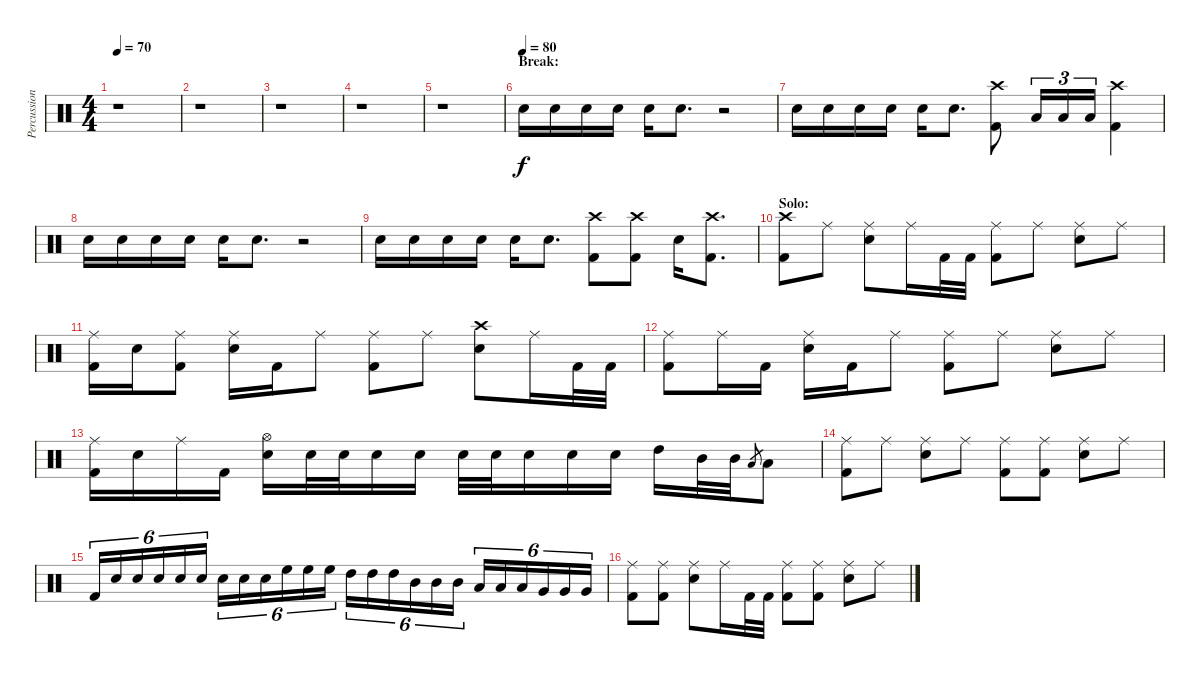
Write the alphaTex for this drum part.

\track ("Percussion" "Percussion") {instrument percussion}
\staff {score}
\articulation defaults
\ts (4 4)
\tempo 70
\clef neutral
\ks c
r.1{dy f} |
r.1 |
r.1 |
r.1 |
r.1 |
\section ("" "Break:")
\tempo (80)
"Electric Snare (hit)".16 "Electric Snare (hit)".16 "Electric Snare (hit)".16 "Electric Snare (hit)".16 "Electric Snare (hit)".16 "Electric Snare (hit)".8{d} r.2 |
"Electric Snare (hit)".16 "Electric Snare (hit)".16 "Electric Snare (hit)".16 "Electric Snare (hit)".16 "Electric Snare (hit)".16 "Electric Snare (hit)".8{d} ("Crash high (hit)" "Kick (hit) 2").8 "Low Tom (hit)".16{tu (3 2)} "Low Tom (hit)".16{tu (3 2)} "Low Tom (hit)".16{tu (3 2)} ("Crash high (hit)" "Kick (hit) 2").4 |
"Electric Snare (hit)".16 "Electric Snare (hit)".16 "Electric Snare (hit)".16 "Electric Snare (hit)".16 "Electric Snare (hit)".16 "Electric Snare (hit)".8{d} r.2 |
"Electric Snare (hit)".16 "Electric Snare (hit)".16 "Electric Snare (hit)".16 "Electric Snare (hit)".16 "Electric Snare (hit)".16 "Electric Snare (hit)".8{d} ("Crash high (hit)" "Kick (hit) 2").8 ("Crash high (hit)" "Kick (hit) 2").8 "Electric Snare (hit)".16 ("Crash high (hit)" "Kick (hit) 2").8{d} |
\section ("" "Solo:")
("Crash high (hit)" "Kick (hit) 2").8 "Ride (middle)".8 ("Ride (middle)" "Electric Snare (hit)").8 "Ride (middle)".16 "Kick (hit) 2".32 "Kick (hit) 2".32 ("Ride (middle)" "Kick (hit) 2").8 "Ride (middle)".8 ("Ride (middle)" "Electric Snare (hit)").8 "Ride (middle)".8 |
("Ride (middle)" "Kick (hit) 2").16 "Electric Snare (hit)".16 ("Ride (middle)" "Kick (hit) 2").8 ("Ride (middle)" "Electric Snare (hit)").16 "Kick (hit) 2".16 "Ride (middle)".8 ("Ride (middle)" "Kick (hit) 2").8 "Ride (middle)".8 ("Crash high (hit)" "Electric Snare (hit)").8 "Ride (middle)".16 "Kick (hit) 2".32 "Kick (hit) 2".32 |
("Ride (middle)" "Kick (hit) 2").8 "Ride (middle)".16 "Kick (hit) 2".16 ("Ride (middle)" "Electric Snare (hit)").16 "Kick (hit) 2".16 "Ride (middle)".8 ("Ride (middle)" "Kick (hit) 2").8 "Ride (middle)".8 ("Ride (middle)" "Electric Snare (hit)").8 "Ride (middle)".8 |
("Ride (middle)" "Kick (hit) 2").16 "Electric Snare (hit)".16 "Ride (middle)".16 "Kick (hit) 2".16 ("Hi-Hat (open)" "Electric Snare (hit)").16 "Electric Snare (hit)".32 "Electric Snare (hit)".32 "Electric Snare (hit)".16 "Electric Snare (hit)".16 "Electric Snare (hit)".32 "Electric Snare (hit)".32 "Electric Snare (hit)".16 "Electric Snare (hit)".16 "Electric Snare (hit)".16 "High Tom (hit)".16 "Mid Tom (hit)".32 "Mid Tom (hit)".32 "Low Tom (hit)".8{gr} "Low Tom (hit)".8 |
("Ride (middle)" "Kick (hit) 2").8 "Ride (middle)".8 ("Ride (middle)" "Electric Snare (hit)").8 "Ride (middle)".8 ("Ride (middle)" "Kick (hit) 2").8 ("Ride (middle)" "Kick (hit) 2").8 ("Ride (middle)" "Electric Snare (hit)").8 "Ride (middle)".8 |
"Kick (hit) 2".16{tu (6 4)} "Electric Snare (hit)".16{tu (6 4)} "Electric Snare (hit)".16{tu (6 4)} "Electric Snare (hit)".16{tu (6 4)} "Electric Snare (hit)".16{tu (6 4)} "Electric Snare (hit)".16{tu (6 4)} "Electric Snare (hit)".16{tu (6 4)} "Electric Snare (hit)".16{tu (6 4)} "Electric Snare (hit)".16{tu (6 4)} "High Floor Tom (hit)".16{tu (6 4)} "High Floor Tom (hit)".16{tu (6 4)} "High Floor Tom (hit)".16{tu (6 4)} "High Tom (hit)".16{tu (6 4)} "High Tom (hit)".16{tu (6 4)} "High Tom (hit)".16{tu (6 4)} "Mid Tom (hit)".16{tu (6 4)} "Mid Tom (hit)".16{tu (6 4)} "Mid Tom (hit)".16{tu (6 4)} "Low Tom (hit)".16{tu (6 4)} "Low Tom (hit)".16{tu (6 4)} "Low Tom (hit)".16{tu (6 4)} "Very Low Tom (hit)".16{tu (6 4)} "Very Low Tom (hit)".16{tu (6 4)} "Very Low Tom (hit)".16{tu (6 4)} |
("Ride (middle)" "Kick (hit) 2").8 ("Ride (middle)" "Kick (hit) 2").8 ("Ride (middle)" "Electric Snare (hit)").8 "Ride (middle)".16 "Kick (hit) 2".32 "Kick (hit) 2".32 ("Ride (middle)" "Kick (hit) 2").8 ("Ride (middle)" "Kick (hit) 2").8 ("Ride (middle)" "Electric Snare (hit)").8 "Ride (middle)".8
